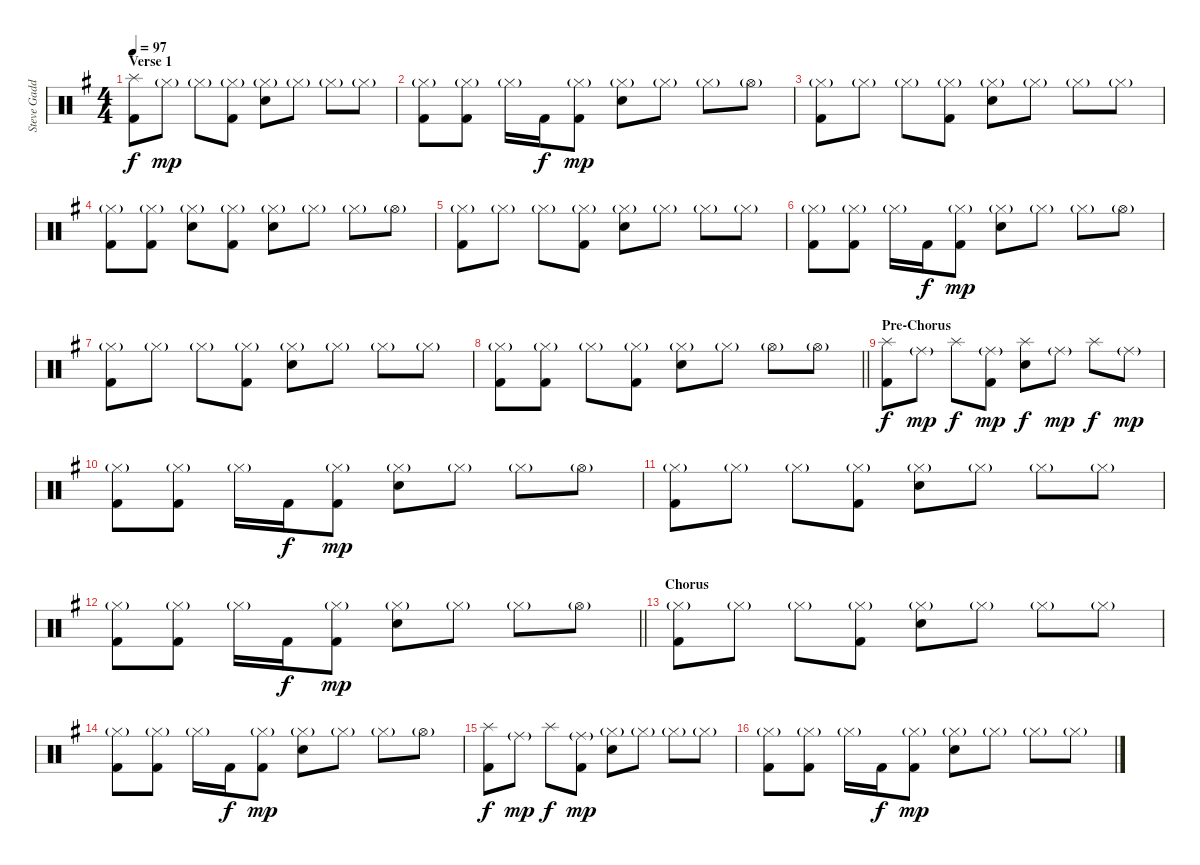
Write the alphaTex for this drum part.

\track ("Steve Gadd" "Steve Gadd") {instrument percussion}
\staff {score}
\articulation defaults
\ts (4 4)
\section ("" "Verse 1")
\tempo 97
\clef neutral
\ks g
("Splash (hit)" "Kick (hit) 2").8{dy f} "Hi-Hat (closed)"{g}.8{dy mp} "Hi-Hat (closed)"{g}.8 ("Hi-Hat (closed)"{g} "Kick (hit) 2").8 ("Hi-Hat (closed)"{g} "Snare (hit) 2").8 "Hi-Hat (closed)"{g}.8 "Hi-Hat (closed)"{g}.8 "Hi-Hat (closed)"{g}.8 |
("Hi-Hat (closed)"{g} "Kick (hit) 2").8 ("Hi-Hat (closed)"{g} "Kick (hit) 2").8 "Hi-Hat (closed)"{g}.16 "Kick (hit) 2".16{dy f} ("Hi-Hat (closed)"{g} "Kick (hit) 2").8{dy mp} ("Hi-Hat (closed)"{g} "Snare (hit) 2").8 "Hi-Hat (closed)"{g}.8 "Hi-Hat (closed)"{g}.8 "Hi-Hat (open)"{g}.8 |
("Hi-Hat (closed)"{g} "Kick (hit) 2").8 "Hi-Hat (closed)"{g}.8 "Hi-Hat (closed)"{g}.8 ("Hi-Hat (closed)"{g} "Kick (hit) 2").8 ("Hi-Hat (closed)"{g} "Snare (hit) 2").8 "Hi-Hat (closed)"{g}.8 "Hi-Hat (closed)"{g}.8 "Hi-Hat (closed)"{g}.8 |
("Hi-Hat (closed)"{g} "Kick (hit) 2").8 ("Hi-Hat (closed)"{g} "Kick (hit) 2").8 ("Hi-Hat (closed)"{g} "Snare (hit) 2").8 ("Hi-Hat (closed)"{g} "Kick (hit) 2").8 ("Hi-Hat (closed)"{g} "Snare (hit) 2").8 "Hi-Hat (closed)"{g}.8 "Hi-Hat (closed)"{g}.8 "Hi-Hat (open)"{g}.8 |
("Hi-Hat (closed)"{g} "Kick (hit) 2").8 "Hi-Hat (closed)"{g}.8 "Hi-Hat (closed)"{g}.8 ("Hi-Hat (closed)"{g} "Kick (hit) 2").8 ("Hi-Hat (closed)"{g} "Snare (hit) 2").8 "Hi-Hat (closed)"{g}.8 "Hi-Hat (closed)"{g}.8 "Hi-Hat (closed)"{g}.8 |
("Hi-Hat (closed)"{g} "Kick (hit) 2").8 ("Hi-Hat (closed)"{g} "Kick (hit) 2").8 "Hi-Hat (closed)"{g}.16 "Kick (hit) 2".16{dy f} ("Hi-Hat (closed)"{g} "Kick (hit) 2").8{dy mp} ("Hi-Hat (closed)"{g} "Snare (hit) 2").8 "Hi-Hat (closed)"{g}.8 "Hi-Hat (closed)"{g}.8 "Hi-Hat (open)"{g}.8 |
("Hi-Hat (closed)"{g} "Kick (hit) 2").8 "Hi-Hat (closed)"{g}.8 "Hi-Hat (closed)"{g}.8 ("Hi-Hat (closed)"{g} "Kick (hit) 2").8 ("Hi-Hat (closed)"{g} "Snare (hit) 2").8 "Hi-Hat (closed)"{g}.8 "Hi-Hat (closed)"{g}.8 "Hi-Hat (closed)"{g}.8 |
\barLineRight lightlight
("Hi-Hat (closed)"{g} "Kick (hit) 2").8 ("Hi-Hat (closed)"{g} "Kick (hit) 2").8 "Hi-Hat (closed)"{g}.8 ("Hi-Hat (closed)"{g} "Kick (hit) 2").8 ("Hi-Hat (closed)"{g} "Snare (hit) 2").8 "Hi-Hat (closed)"{g}.8 "Hi-Hat (open)"{g}.8 "Hi-Hat (open)"{g}.8 |
\section ("" "Pre-Chorus")
("Splash (hit)" "Kick (hit) 2").8{dy f} "Ride (middle)"{g}.8{dy mp} "Splash (hit)".8{dy f} ("Ride (middle)"{g} "Kick (hit) 2").8{dy mp} ("Splash (hit)" "Snare (hit) 2").8{dy f} "Ride (middle)"{g}.8{dy mp} "Splash (hit)".8{dy f} "Ride (middle)"{g}.8{dy mp} |
("Hi-Hat (closed)"{g} "Kick (hit) 2").8 ("Hi-Hat (closed)"{g} "Kick (hit) 2").8 "Hi-Hat (closed)"{g}.16 "Kick (hit) 2".16{dy f} ("Hi-Hat (closed)"{g} "Kick (hit) 2").8{dy mp} ("Hi-Hat (closed)"{g} "Snare (hit) 2").8 "Hi-Hat (closed)"{g}.8 "Hi-Hat (closed)"{g}.8 "Hi-Hat (open)"{g}.8 |
("Hi-Hat (closed)"{g} "Kick (hit) 2").8 "Hi-Hat (closed)"{g}.8 "Hi-Hat (closed)"{g}.8 ("Hi-Hat (closed)"{g} "Kick (hit) 2").8 ("Hi-Hat (closed)"{g} "Snare (hit) 2").8 "Hi-Hat (closed)"{g}.8 "Hi-Hat (closed)"{g}.8 "Hi-Hat (closed)"{g}.8 |
\barLineRight lightlight
("Hi-Hat (closed)"{g} "Kick (hit) 2").8 ("Hi-Hat (closed)"{g} "Kick (hit) 2").8 "Hi-Hat (closed)"{g}.16 "Kick (hit) 2".16{dy f} ("Hi-Hat (closed)"{g} "Kick (hit) 2").8{dy mp} ("Hi-Hat (closed)"{g} "Snare (hit) 2").8 "Hi-Hat (closed)"{g}.8 "Hi-Hat (closed)"{g}.8 "Hi-Hat (open)"{g}.8 |
\section ("" "Chorus")
("Hi-Hat (closed)"{g} "Kick (hit) 2").8 "Hi-Hat (closed)"{g}.8 "Hi-Hat (closed)"{g}.8 ("Hi-Hat (closed)"{g} "Kick (hit) 2").8 ("Hi-Hat (closed)"{g} "Snare (hit) 2").8 "Hi-Hat (closed)"{g}.8 "Hi-Hat (closed)"{g}.8 "Hi-Hat (closed)"{g}.8 |
("Hi-Hat (closed)"{g} "Kick (hit) 2").8 ("Hi-Hat (closed)"{g} "Kick (hit) 2").8 "Hi-Hat (closed)"{g}.16 "Kick (hit) 2".16{dy f} ("Hi-Hat (closed)"{g} "Kick (hit) 2").8{dy mp} ("Hi-Hat (closed)"{g} "Snare (hit) 2").8 "Hi-Hat (closed)"{g}.8 "Hi-Hat (closed)"{g}.8 "Hi-Hat (open)"{g}.8 |
("Splash (hit)" "Kick (hit) 2").8{dy f} "Ride (middle)"{g}.8{dy mp} "Splash (hit)".8{dy f} ("Ride (middle)"{g} "Kick (hit) 2").8{dy mp} ("Hi-Hat (closed)"{g} "Snare (hit) 2").8 "Hi-Hat (closed)"{g}.8 "Hi-Hat (closed)"{g}.8 "Hi-Hat (closed)"{g}.8 |
("Hi-Hat (closed)"{g} "Kick (hit) 2").8 ("Hi-Hat (closed)"{g} "Kick (hit) 2").8 "Hi-Hat (closed)"{g}.16 "Kick (hit) 2".16{dy f} ("Hi-Hat (closed)"{g} "Kick (hit) 2").8{dy mp} ("Hi-Hat (closed)"{g} "Snare (hit) 2").8 "Hi-Hat (closed)"{g}.8 "Hi-Hat (closed)"{g}.8 "Hi-Hat (closed)"{g}.8
